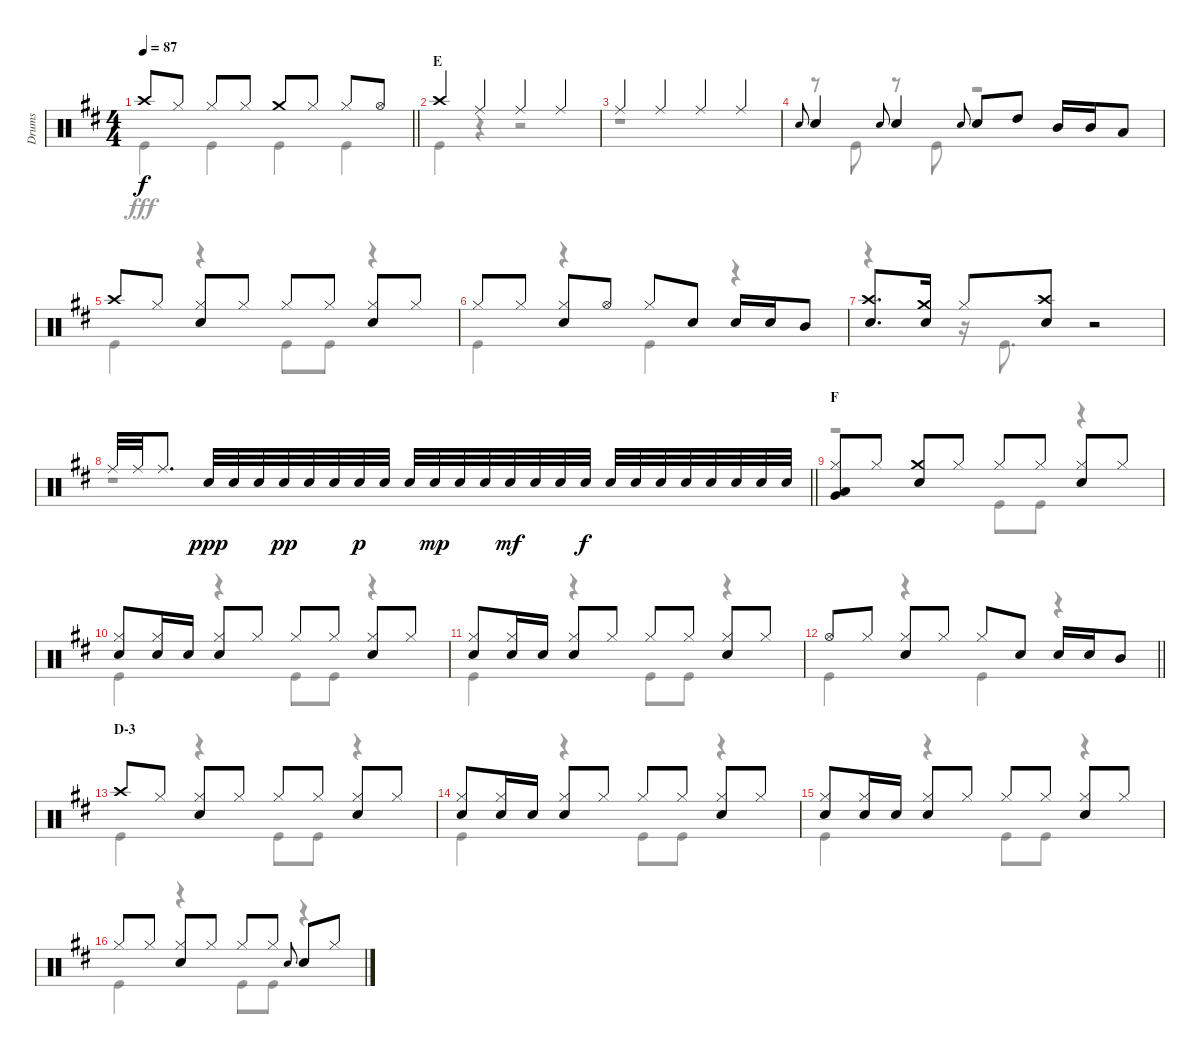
\track ("Drums" "Drums") {instrument percussion}
\staff {score}
\articulation defaults
\voice
\ts (4 4)
\tempo 87
\clef neutral
\barLineRight lightlight
\ks d "Crash high (hit)".8{dy f} "Hi-Hat (closed)".8 "Hi-Hat (closed)".8 "Hi-Hat (closed)".8 "Crash medium (hit)".8 "Hi-Hat (closed)".8 "Hi-Hat (closed)".8 "Hi-Hat (open)".8
|
\section ("" "E")
"Crash high (hit)".4 "Ride (middle)".4 "Ride (middle)".4 "Ride (middle)".4 |
"Ride (middle)".4 "Ride (middle)".4 "Ride (middle)".4 "Ride (middle)".4 |
"Snare (hit) 2".8{gr onbeat} "Snare (hit) 2".4 "Snare (hit) 2".8{gr onbeat} "Snare (hit) 2".4 "Snare (hit) 2".8{gr onbeat} "Snare (hit) 2".8 "High Tom (hit)".8 "Mid Tom (hit)".16 "Mid Tom (hit)".16 "Low Tom (hit)".8 |
"Crash high (hit)".8 "Hi-Hat (closed)".8 ("Hi-Hat (closed)" "Snare (hit) 2").8 "Hi-Hat (closed)".8 "Hi-Hat (closed)".8 "Hi-Hat (closed)".8 ("Hi-Hat (closed)" "Snare (hit) 2").8 "Hi-Hat (closed)".8 |
"Hi-Hat (closed)".8 "Hi-Hat (closed)".8 ("Hi-Hat (closed)" "Snare (hit) 2").8 "Hi-Hat (open)".8 "Hi-Hat (closed)".8 "Snare (hit) 2".8 "Snare (hit) 2".16 "Snare (hit) 2".16 "Mid Tom (hit)".8 |
("Crash high (hit)" "Snare (hit) 2").8{d} ("Crash medium (hit)" "Snare (hit) 2").16 "Hi-Hat (closed)".8 ("Crash high (hit)" "Snare (hit) 2").8 r.2 |
\barLineRight lightlight "Ride (middle)".32 "Ride (middle)".32 "Ride (middle)".8{d} "Snare (hit) 2".32{dy ppp} "Snare (hit) 2".32 "Snare (hit) 2".32 "Snare (hit) 2".32{dy pp} "Snare (hit) 2".32 "Snare (hit) 2".32 "Snare (hit) 2".32{dy p} "Snare (hit) 2".32 "Snare (hit) 2".32 "Snare (hit) 2".32{dy mp} "Snare (hit) 2".32 "Snare (hit) 2".32 "Snare (hit) 2".32{dy mf} "Snare (hit) 2".32 "Snare (hit) 2".32 "Snare (hit) 2".32{dy f} "Snare (hit) 2".32 "Snare (hit) 2".32 "Snare (hit) 2".32 "Snare (hit) 2".32 "Snare (hit) 2".32 "Snare (hit) 2".32 "Snare (hit) 2".32 "Snare (hit) 2".32
|
\section ("" "F")
("Hi-Hat (closed)" "Low Tom (hit)" "Very Low Tom (hit)").8 "Hi-Hat (closed)".8 ("Crash medium (hit)" "Snare (hit) 2").8 "Hi-Hat (closed)".8 "Hi-Hat (closed)".8 "Hi-Hat (closed)".8 ("Hi-Hat (closed)" "Snare (hit) 2").8 "Hi-Hat (closed)".8 |
("Hi-Hat (closed)" "Snare (hit) 2").8 ("Hi-Hat (closed)" "Snare (hit) 2").16 "Snare (hit) 2".16 ("Hi-Hat (closed)" "Snare (hit) 2").8 "Hi-Hat (closed)".8 "Hi-Hat (closed)".8 "Hi-Hat (closed)".8 ("Hi-Hat (closed)" "Snare (hit) 2").8 "Hi-Hat (closed)".8 |
("Hi-Hat (closed)" "Snare (hit) 2").8 ("Hi-Hat (closed)" "Snare (hit) 2").16 "Snare (hit) 2".16 ("Hi-Hat (closed)" "Snare (hit) 2").8 "Hi-Hat (closed)".8 "Hi-Hat (closed)".8 "Hi-Hat (closed)".8 ("Hi-Hat (closed)" "Snare (hit) 2").8 "Hi-Hat (closed)".8 |
\barLineRight lightlight "Hi-Hat (open)".8 "Hi-Hat (closed)".8
("Hi-Hat (closed)" "Snare (hit) 2").8 "Hi-Hat (closed)".8 "Hi-Hat (closed)".8 "Snare (hit) 2".8 "Snare (hit) 2".16 "Snare (hit) 2".16 "Mid Tom (hit)".8 |
\section ("" "D-3")
"Crash high (hit)".8 "Hi-Hat (closed)".8 ("Hi-Hat (closed)" "Snare (hit) 2").8 "Hi-Hat (closed)".8 "Hi-Hat (closed)".8 "Hi-Hat (closed)".8 ("Hi-Hat (closed)" "Snare (hit) 2").8 "Hi-Hat (closed)".8 |
("Hi-Hat (closed)" "Snare (hit) 2").8 ("Hi-Hat (closed)" "Snare (hit) 2").16 "Snare (hit) 2".16 ("Hi-Hat (closed)" "Snare (hit) 2").8 "Hi-Hat (closed)".8 "Hi-Hat (closed)".8 "Hi-Hat (closed)".8 ("Hi-Hat (closed)" "Snare (hit) 2").8 "Hi-Hat (closed)".8 |
("Hi-Hat (closed)" "Snare (hit) 2").8 ("Hi-Hat (closed)" "Snare (hit) 2").16 "Snare (hit) 2".16 ("Hi-Hat (closed)" "Snare (hit) 2").8 "Hi-Hat (closed)".8 "Hi-Hat (closed)".8 "Hi-Hat (closed)".8 ("Hi-Hat (closed)" "Snare (hit) 2").8 "Hi-Hat (closed)".8 |
"Hi-Hat (closed)".8 "Hi-Hat (closed)".8 ("Hi-Hat (closed)" "Snare (hit) 2").8 "Hi-Hat (closed)".8 "Hi-Hat (closed)".8 "Hi-Hat (closed)".8 "Snare (hit) 2".8{gr onbeat} "Snare (hit) 2".8 "Hi-Hat (closed)".8
\voice
\clef neutral
\ottava regular
\simile none
\barLineRight lightlight
\ks d "Kick (hit)".4{dy fff} "Kick (hit)".4 "Kick (hit)".4 "Kick (hit)".4
|
"Kick (hit)".4 r.4 r.2 |
r.1 |
r.8 "Kick (hit)".8 r.8 "Kick (hit)".8 r.2 |
"Kick (hit)".4 r.4 "Kick (hit)".8 "Kick (hit)".8 r.4 |
"Kick (hit)".4 r.4 "Kick (hit)".4 r.4 |
r.4 r.16 "Kick (hit)".8{d} r.2 |
\barLineRight lightlight
r.1 |
r.2 "Kick (hit)".8 "Kick (hit)".8 r.4 |
"Kick (hit)".4 r.4 "Kick (hit)".8 "Kick (hit)".8 r.4 |
"Kick (hit)".4 r.4 "Kick (hit)".8 "Kick (hit)".8 r.4 |
\barLineRight lightlight "Kick (hit)".4
r.4 "Kick (hit)".4 r.4 |
"Kick (hit)".4 r.4 "Kick (hit)".8 "Kick (hit)".8 r.4 |
"Kick (hit)".4 r.4 "Kick (hit)".8 "Kick (hit)".8 r.4 |
"Kick (hit)".4 r.4 "Kick (hit)".8 "Kick (hit)".8 r.4 |
"Kick (hit)".4 r.4 "Kick (hit)".8 "Kick (hit)".8 r.4
